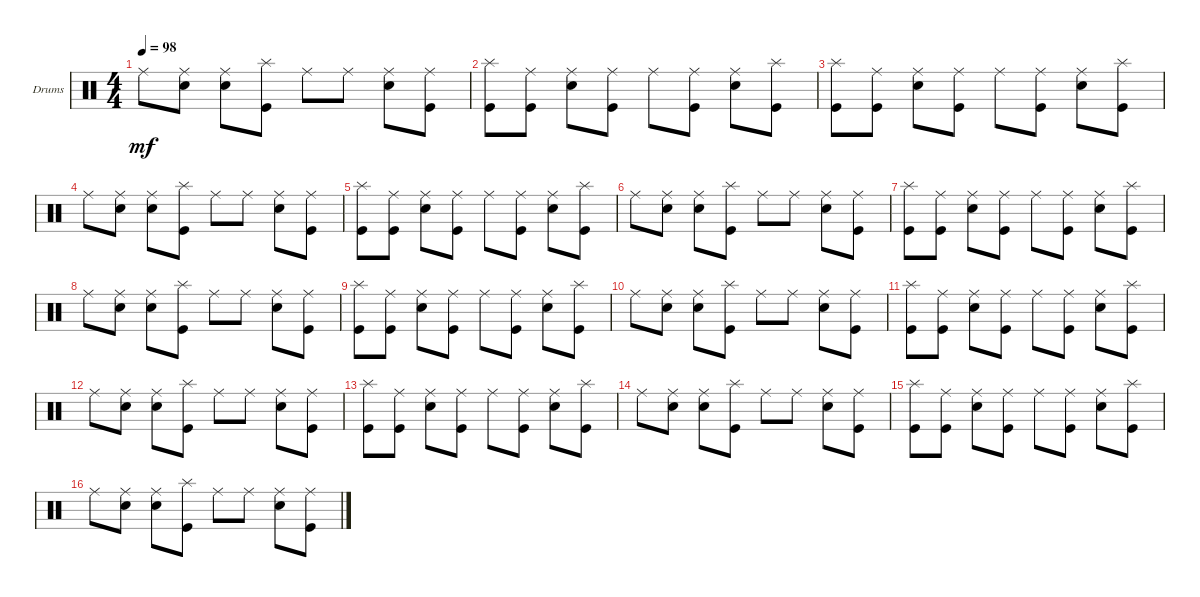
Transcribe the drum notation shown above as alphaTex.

\defaultSystemsLayout 4
\bracketExtendMode groupsimilarinstruments
\firstSystemTrackNameOrientation horizontal
\otherSystemsTrackNameOrientation horizontal
\track ("Frank Fontsere" "Drums") {instrument percussion}
\staff {score}
\articulation defaults
\ts (4 4)
\tempo 98
\clef neutral
\ks c "Ride (middle)".8{dy mf}
("Snare (hit) 2" "Ride (middle)").8 ("Ride (middle)" "Snare (hit) 2").8 ("Splash (hit)" "Kick (hit)").8 "Ride (middle)".8 "Ride (middle)".8 ("Snare (hit) 2" "Ride (middle)").8 ("Kick (hit)" "Ride (middle)").8 |
("Kick (hit)" "Splash (hit)").8 ("Ride (middle)" "Kick (hit)").8 ("Ride (middle)" "Snare (hit) 2").8 ("Kick (hit)" "Ride (middle)").8 "Ride (middle)".8 ("Ride (middle)" "Kick (hit)").8 ("Ride (middle)" "Snare (hit) 2").8 ("Kick (hit)" "Splash (hit)").8 |
("Kick (hit)" "Splash (hit)").8 ("Ride (middle)" "Kick (hit)").8 ("Ride (middle)" "Snare (hit) 2").8 ("Kick (hit)" "Ride (middle)").8 "Ride (middle)".8 ("Ride (middle)" "Kick (hit)").8 ("Ride (middle)" "Snare (hit) 2").8 ("Kick (hit)" "Splash (hit)").8 |
"Ride (middle)".8 ("Snare (hit) 2" "Ride (middle)").8 ("Ride (middle)" "Snare (hit) 2").8 ("Splash (hit)" "Kick (hit)").8 "Ride (middle)".8 "Ride (middle)".8 ("Snare (hit) 2" "Ride (middle)").8 ("Kick (hit)" "Ride (middle)").8 |
("Kick (hit)" "Splash (hit)").8 ("Ride (middle)" "Kick (hit)").8 ("Ride (middle)" "Snare (hit) 2").8 ("Kick (hit)" "Ride (middle)").8 "Ride (middle)".8 ("Ride (middle)" "Kick (hit)").8 ("Ride (middle)" "Snare (hit) 2").8 ("Kick (hit)" "Splash (hit)").8 |
"Ride (middle)".8 ("Snare (hit) 2" "Ride (middle)").8 ("Ride (middle)" "Snare (hit) 2").8 ("Splash (hit)" "Kick (hit)").8 "Ride (middle)".8 "Ride (middle)".8 ("Snare (hit) 2" "Ride (middle)").8 ("Kick (hit)" "Ride (middle)").8 |
("Kick (hit)" "Splash (hit)").8 ("Ride (middle)" "Kick (hit)").8 ("Ride (middle)" "Snare (hit) 2").8 ("Kick (hit)" "Ride (middle)").8 "Ride (middle)".8 ("Ride (middle)" "Kick (hit)").8 ("Ride (middle)" "Snare (hit) 2").8 ("Kick (hit)" "Splash (hit)").8 |
"Ride (middle)".8 ("Snare (hit) 2" "Ride (middle)").8 ("Ride (middle)" "Snare (hit) 2").8 ("Splash (hit)" "Kick (hit)").8 "Ride (middle)".8 "Ride (middle)".8 ("Snare (hit) 2" "Ride (middle)").8 ("Kick (hit)" "Ride (middle)").8 |
("Kick (hit)" "Splash (hit)").8 ("Ride (middle)" "Kick (hit)").8 ("Ride (middle)" "Snare (hit) 2").8 ("Kick (hit)" "Ride (middle)").8 "Ride (middle)".8 ("Ride (middle)" "Kick (hit)").8 ("Ride (middle)" "Snare (hit) 2").8 ("Kick (hit)" "Splash (hit)").8 |
"Ride (middle)".8 ("Snare (hit) 2" "Ride (middle)").8 ("Ride (middle)" "Snare (hit) 2").8 ("Splash (hit)" "Kick (hit)").8 "Ride (middle)".8 "Ride (middle)".8 ("Snare (hit) 2" "Ride (middle)").8 ("Kick (hit)" "Ride (middle)").8 |
("Kick (hit)" "Splash (hit)").8 ("Ride (middle)" "Kick (hit)").8 ("Ride (middle)" "Snare (hit) 2").8 ("Kick (hit)" "Ride (middle)").8 "Ride (middle)".8 ("Ride (middle)" "Kick (hit)").8 ("Ride (middle)" "Snare (hit) 2").8 ("Kick (hit)" "Splash (hit)").8 |
"Ride (middle)".8 ("Snare (hit) 2" "Ride (middle)").8 ("Ride (middle)" "Snare (hit) 2").8 ("Splash (hit)" "Kick (hit)").8 "Ride (middle)".8 "Ride (middle)".8 ("Snare (hit) 2" "Ride (middle)").8 ("Kick (hit)" "Ride (middle)").8 |
("Kick (hit)" "Splash (hit)").8 ("Ride (middle)" "Kick (hit)").8 ("Ride (middle)" "Snare (hit) 2").8 ("Kick (hit)" "Ride (middle)").8 "Ride (middle)".8 ("Ride (middle)" "Kick (hit)").8 ("Ride (middle)" "Snare (hit) 2").8 ("Kick (hit)" "Splash (hit)").8 |
"Ride (middle)".8 ("Snare (hit) 2" "Ride (middle)").8 ("Ride (middle)" "Snare (hit) 2").8 ("Splash (hit)" "Kick (hit)").8 "Ride (middle)".8 "Ride (middle)".8 ("Snare (hit) 2" "Ride (middle)").8 ("Kick (hit)" "Ride (middle)").8 |
("Kick (hit)" "Splash (hit)").8 ("Ride (middle)" "Kick (hit)").8 ("Ride (middle)" "Snare (hit) 2").8 ("Kick (hit)" "Ride (middle)").8 "Ride (middle)".8 ("Ride (middle)" "Kick (hit)").8 ("Ride (middle)" "Snare (hit) 2").8 ("Kick (hit)" "Splash (hit)").8 |
"Ride (middle)".8 ("Snare (hit) 2" "Ride (middle)").8 ("Ride (middle)" "Snare (hit) 2").8 ("Splash (hit)" "Kick (hit)").8 "Ride (middle)".8 "Ride (middle)".8 ("Snare (hit) 2" "Ride (middle)").8 ("Kick (hit)" "Ride (middle)").8
